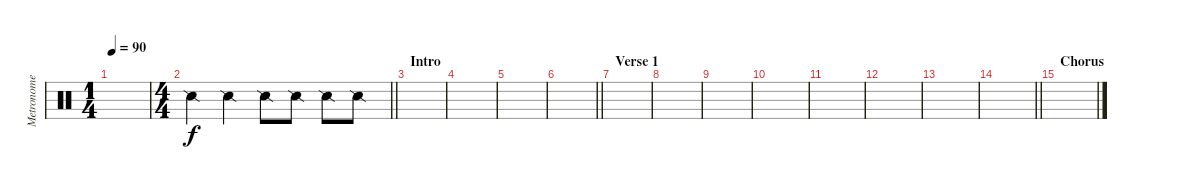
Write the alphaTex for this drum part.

\track ("Metronome" "Metronome") {instrument percussion}
\staff {score}
\articulation defaults
\ts (1 4)
\tempo 90
\clef neutral
\ks c
|
\ts (4 4)
\barLineRight lightlight "Snare (side stick) 2".4 "Snare (side stick) 2".4 "Snare (side stick) 2".8 "Snare (side stick) 2".8 "Snare (side stick) 2".8 "Snare (side stick) 2".8
|
\section ("" "Intro")
|
|
|
\barLineRight lightlight
|
\section ("" "Verse 1")
|
|
|
|
|
|
|
\barLineRight lightlight
|
\section ("" "Chorus")
